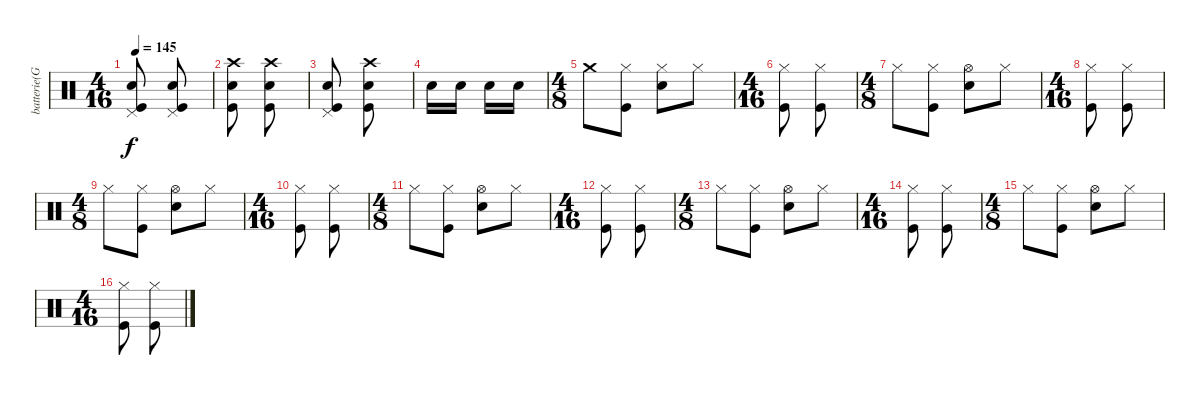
\track ("batterie(Granberg)" "batterie(G") {instrument percussion}
\staff {score}
\articulation defaults
\ts (4 16)
\tempo 145
\clef neutral
\ks c
("Pedal Hi-Hat (hit)" "Snare (hit) 2" "Kick (hit)").8{dy f} ("Pedal Hi-Hat (hit)" "Snare (hit) 2" "Kick (hit)").8 |
("Crash high (hit)" "Snare (hit) 2" "Kick (hit)").8 ("Crash high (hit)" "Snare (hit) 2" "Kick (hit)").8 |
("Pedal Hi-Hat (hit)" "Snare (hit) 2" "Kick (hit)").8 ("Crash high (hit)" "Snare (hit) 2" "Kick (hit)").8 |
"Snare (hit) 2".16 "Snare (hit) 2".16 "Snare (hit) 2".16 "Snare (hit) 2".16 |
\ts (4 8)
"Crash medium (hit)".8 ("Hi-Hat (closed)" "Kick (hit)").8 ("Hi-Hat (closed)" "Snare (hit) 2").8 "Hi-Hat (closed)".8 |
\ts (4 16)
("Hi-Hat (closed)" "Kick (hit)").8 ("Hi-Hat (closed)" "Kick (hit)").8 |
\ts (4 8)
"Hi-Hat (closed)".8 ("Hi-Hat (closed)" "Kick (hit)").8 ("Hi-Hat (open)" "Snare (hit) 2").8 "Hi-Hat (closed)".8 |
\ts (4 16)
("Hi-Hat (closed)" "Kick (hit)").8 ("Hi-Hat (closed)" "Kick (hit)").8 |
\ts (4 8)
"Hi-Hat (closed)".8 ("Hi-Hat (closed)" "Kick (hit)").8 ("Hi-Hat (open)" "Snare (hit) 2").8 "Hi-Hat (closed)".8 |
\ts (4 16)
("Hi-Hat (closed)" "Kick (hit)").8 ("Hi-Hat (closed)" "Kick (hit)").8 |
\ts (4 8)
"Hi-Hat (closed)".8 ("Hi-Hat (closed)" "Kick (hit)").8 ("Hi-Hat (open)" "Snare (hit) 2").8 "Hi-Hat (closed)".8 |
\ts (4 16)
("Hi-Hat (closed)" "Kick (hit)").8 ("Hi-Hat (closed)" "Kick (hit)").8 |
\ts (4 8)
"Hi-Hat (closed)".8 ("Hi-Hat (closed)" "Kick (hit)").8 ("Hi-Hat (open)" "Snare (hit) 2").8 "Hi-Hat (closed)".8 |
\ts (4 16)
("Hi-Hat (closed)" "Kick (hit)").8 ("Hi-Hat (closed)" "Kick (hit)").8 |
\ts (4 8)
"Hi-Hat (closed)".8 ("Hi-Hat (closed)" "Kick (hit)").8 ("Hi-Hat (open)" "Snare (hit) 2").8 "Hi-Hat (closed)".8 |
\ts (4 16)
("Hi-Hat (closed)" "Kick (hit)").8 ("Hi-Hat (closed)" "Kick (hit)").8
